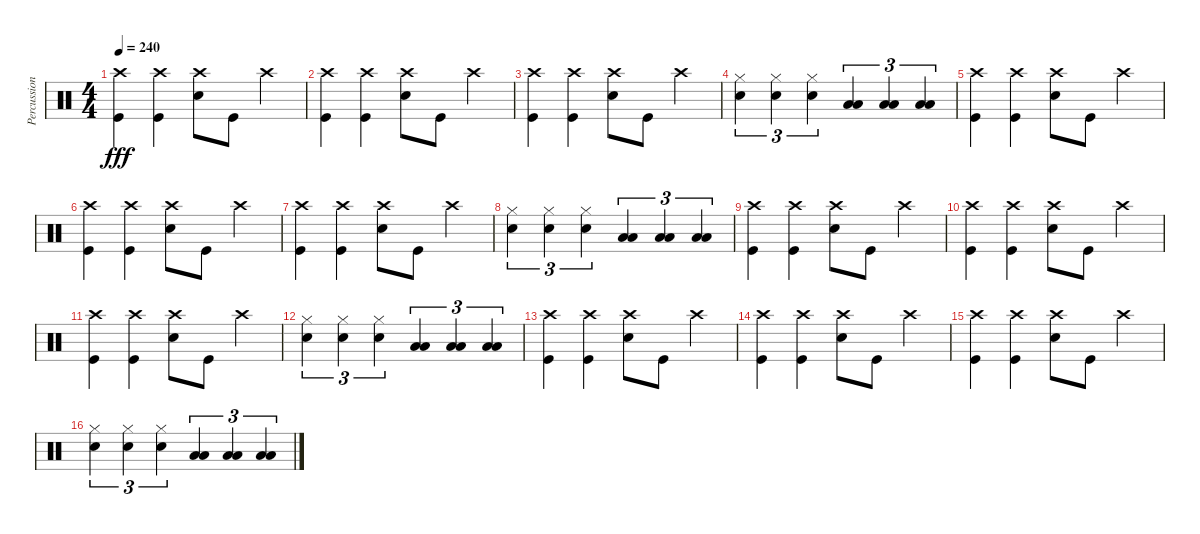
\track ("Percussion" "Percussion") {instrument percussion}
\staff {score}
\articulation defaults
\ts (4 4)
\tempo 240
\clef neutral
\ks c
("Crash high (hit)" "Kick (hit)").4{dy fff volume 16} ("Crash high (hit)" "Kick (hit)").4 ("Crash high (hit)" "Snare (hit) 2").8 "Kick (hit)".8 "Crash high (hit)".4 |
("Crash high (hit)" "Kick (hit)").4 ("Crash high (hit)" "Kick (hit)").4 ("Crash high (hit)" "Snare (hit) 2").8 "Kick (hit)".8 "Crash high (hit)".4 |
("Crash high (hit)" "Kick (hit)").4 ("Crash high (hit)" "Kick (hit)").4 ("Crash high (hit)" "Snare (hit) 2").8 "Kick (hit)".8 "Crash high (hit)".4 |
("Hi-Hat (closed)" "Snare (hit) 2").4{tu (3 2)} ("Hi-Hat (closed)" "Snare (hit) 2").4{tu (3 2)} ("Hi-Hat (closed)" "Snare (hit) 2").4{tu (3 2)} ("Low Tom (hit)" "Low Floor Tom (hit)").4{tu (3 2)} ("Low Tom (hit)" "Low Floor Tom (hit)").4{tu (3 2)} ("Low Tom (hit)" "Low Floor Tom (hit)").4{tu (3 2)} |
("Crash high (hit)" "Kick (hit)").4{volume 16} ("Crash high (hit)" "Kick (hit)").4 ("Crash high (hit)" "Snare (hit) 2").8 "Kick (hit)".8 "Crash high (hit)".4 |
("Crash high (hit)" "Kick (hit)").4 ("Crash high (hit)" "Kick (hit)").4 ("Crash high (hit)" "Snare (hit) 2").8 "Kick (hit)".8 "Crash high (hit)".4 |
("Crash high (hit)" "Kick (hit)").4 ("Crash high (hit)" "Kick (hit)").4 ("Crash high (hit)" "Snare (hit) 2").8 "Kick (hit)".8 "Crash high (hit)".4 |
("Hi-Hat (closed)" "Snare (hit) 2").4{tu (3 2)} ("Hi-Hat (closed)" "Snare (hit) 2").4{tu (3 2)} ("Hi-Hat (closed)" "Snare (hit) 2").4{tu (3 2)} ("Low Tom (hit)" "Low Floor Tom (hit)").4{tu (3 2)} ("Low Tom (hit)" "Low Floor Tom (hit)").4{tu (3 2)} ("Low Tom (hit)" "Low Floor Tom (hit)").4{tu (3 2)} |
("Crash high (hit)" "Kick (hit)").4{volume 16} ("Crash high (hit)" "Kick (hit)").4 ("Crash high (hit)" "Snare (hit) 2").8 "Kick (hit)".8 "Crash high (hit)".4 |
("Crash high (hit)" "Kick (hit)").4 ("Crash high (hit)" "Kick (hit)").4 ("Crash high (hit)" "Snare (hit) 2").8 "Kick (hit)".8 "Crash high (hit)".4 |
("Crash high (hit)" "Kick (hit)").4 ("Crash high (hit)" "Kick (hit)").4 ("Crash high (hit)" "Snare (hit) 2").8 "Kick (hit)".8 "Crash high (hit)".4 |
("Hi-Hat (closed)" "Snare (hit) 2").4{tu (3 2)} ("Hi-Hat (closed)" "Snare (hit) 2").4{tu (3 2)} ("Hi-Hat (closed)" "Snare (hit) 2").4{tu (3 2)} ("Low Tom (hit)" "Low Floor Tom (hit)").4{tu (3 2)} ("Low Tom (hit)" "Low Floor Tom (hit)").4{tu (3 2)} ("Low Tom (hit)" "Low Floor Tom (hit)").4{tu (3 2)} |
("Crash high (hit)" "Kick (hit)").4{volume 16} ("Crash high (hit)" "Kick (hit)").4 ("Crash high (hit)" "Snare (hit) 2").8 "Kick (hit)".8 "Crash high (hit)".4 |
("Crash high (hit)" "Kick (hit)").4 ("Crash high (hit)" "Kick (hit)").4 ("Crash high (hit)" "Snare (hit) 2").8 "Kick (hit)".8 "Crash high (hit)".4 |
("Crash high (hit)" "Kick (hit)").4 ("Crash high (hit)" "Kick (hit)").4 ("Crash high (hit)" "Snare (hit) 2").8 "Kick (hit)".8 "Crash high (hit)".4 |
("Hi-Hat (closed)" "Snare (hit) 2").4{tu (3 2)} ("Hi-Hat (closed)" "Snare (hit) 2").4{tu (3 2)} ("Hi-Hat (closed)" "Snare (hit) 2").4{tu (3 2)} ("Low Tom (hit)" "Low Floor Tom (hit)").4{tu (3 2)} ("Low Tom (hit)" "Low Floor Tom (hit)").4{tu (3 2)} ("Low Tom (hit)" "Low Floor Tom (hit)").4{tu (3 2)}
